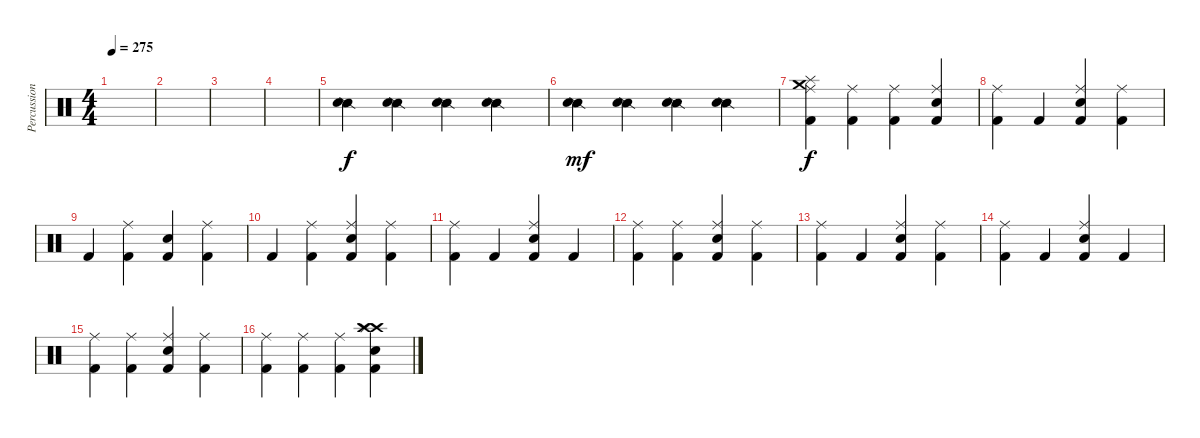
\track ("Percussion" "Percussion") {instrument percussion}
\staff {score}
\articulation defaults
\ts (4 4)
\tempo 275
\clef neutral
\ks c
|
|
|
|
("Snare (side stick) 2" "Electric Snare (hit)").4 ("Snare (side stick) 2" "Electric Snare (hit)").4 ("Snare (side stick) 2" "Electric Snare (hit)").4 ("Snare (side stick) 2" "Electric Snare (hit)").4 |
("Snare (side stick) 2" "Electric Snare (hit)").4{dy mf} ("Snare (side stick) 2" "Electric Snare (hit)").4 ("Snare (side stick) 2" "Electric Snare (hit)").4 ("Snare (side stick) 2" "Electric Snare (hit)").4 |
("Crash medium (hit)" "Splash (hit)" "Kick (hit) 2" "Ride (middle)").4{dy f} ("Kick (hit) 2" "Ride (middle)").4 ("Kick (hit) 2" "Ride (middle)").4 ("Snare (hit) 2" "Kick (hit) 2" "Ride (middle)").4 |
("Kick (hit) 2" "Ride (middle)").4 "Kick (hit) 2".4 ("Snare (hit) 2" "Kick (hit) 2" "Ride (middle)").4 ("Kick (hit) 2" "Ride (middle)").4 |
"Kick (hit) 2".4 ("Kick (hit) 2" "Ride (middle)").4 ("Snare (hit) 2" "Kick (hit) 2").4 ("Kick (hit) 2" "Ride (middle)").4 |
"Kick (hit) 2".4 ("Kick (hit) 2" "Ride (middle)").4 ("Snare (hit) 2" "Kick (hit) 2" "Ride (middle)").4 ("Kick (hit) 2" "Ride (middle)").4 |
("Kick (hit) 2" "Ride (middle)").4 "Kick (hit) 2".4 ("Snare (hit) 2" "Kick (hit) 2" "Ride (middle)").4 "Kick (hit) 2".4 |
("Kick (hit) 2" "Ride (middle)").4 ("Kick (hit) 2" "Ride (middle)").4 ("Snare (hit) 2" "Kick (hit) 2" "Ride (middle)").4 ("Kick (hit) 2" "Ride (middle)").4 |
("Kick (hit) 2" "Ride (middle)").4 "Kick (hit) 2".4 ("Snare (hit) 2" "Kick (hit) 2" "Ride (middle)").4 ("Kick (hit) 2" "Ride (middle)").4 |
("Kick (hit) 2" "Ride (middle)").4 "Kick (hit) 2".4 ("Snare (hit) 2" "Kick (hit) 2" "Ride (middle)").4 "Kick (hit) 2".4 |
("Kick (hit) 2" "Ride (middle)").4 ("Kick (hit) 2" "Ride (middle)").4 ("Snare (hit) 2" "Kick (hit) 2" "Ride (middle)").4 ("Kick (hit) 2" "Ride (middle)").4 |
("Kick (hit) 2" "Ride (middle)").4 ("Kick (hit) 2" "Ride (middle)").4 ("Kick (hit) 2" "Ride (middle)").4 ("Snare (hit) 2" "Kick (hit) 2" "Crash high (hit)" "Splash (hit)" "Crash high (hit)").4
